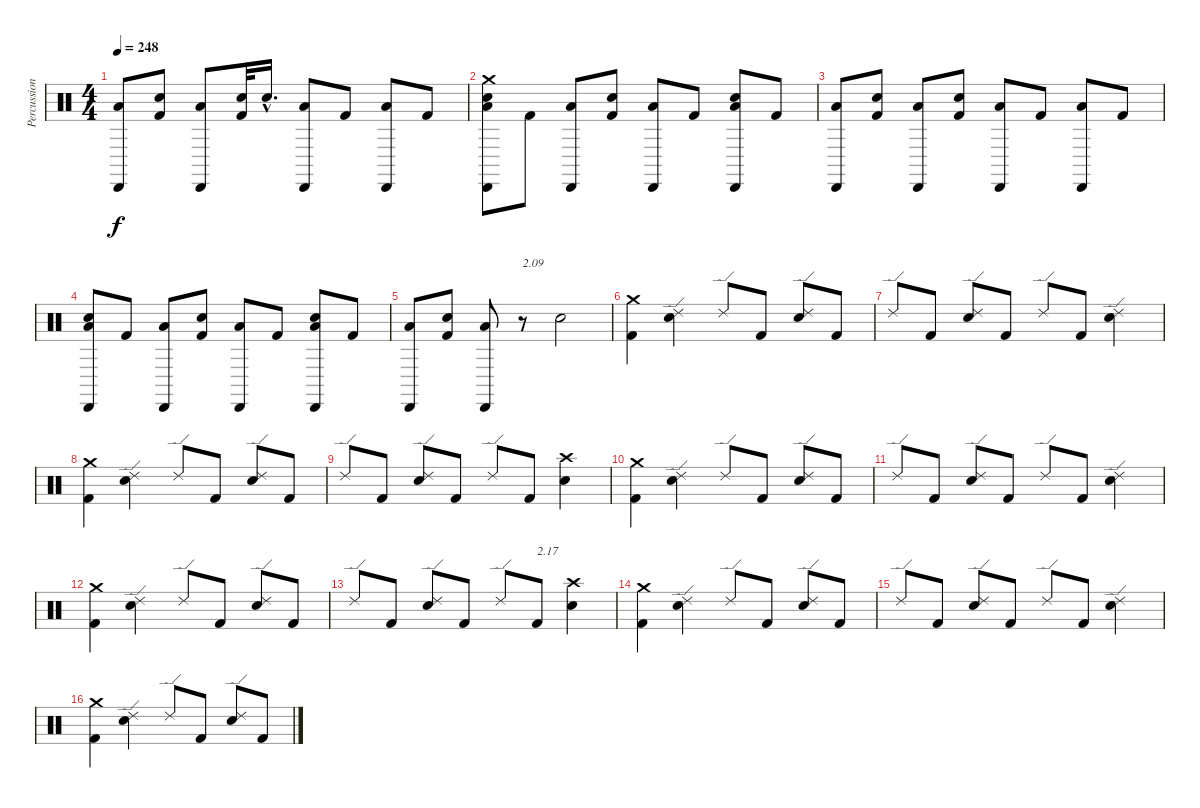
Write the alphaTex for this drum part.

\track ("Percussions" "Percussion") {instrument percussion}
\staff {score}
\articulation defaults
\ts (4 4)
\tempo 248
\clef neutral
\ks c
("Low Floor Tom (hit)" "Cabasa (hit)").8{dy f} ("Kick (hit) 2" "Electric Snare (hit)").8 ("Low Floor Tom (hit)" "Cabasa (hit)").8 ("Kick (hit) 2" "Electric Snare (hit)").32 "Electric Snare (hit)"{hac}.16{d} ("Low Floor Tom (hit)" "Cabasa (hit)").8 "Kick (hit) 2".8 ("Low Floor Tom (hit)" "Cabasa (hit)").8 "Kick (hit) 2".8 |
("Low Floor Tom (hit)" "Electric Snare (hit)" "Cabasa (hit)" "Crash medium (hit)").8 "Kick (hit) 2".8 ("Low Floor Tom (hit)" "Cabasa (hit)").8 ("Kick (hit) 2" "Electric Snare (hit)").8 ("Low Floor Tom (hit)" "Cabasa (hit)").8 "Kick (hit) 2".8 ("Low Floor Tom (hit)" "Electric Snare (hit)" "Cabasa (hit)").8 "Kick (hit) 2".8 |
("Low Floor Tom (hit)" "Cabasa (hit)").8 ("Kick (hit) 2" "Electric Snare (hit)").8 ("Low Floor Tom (hit)" "Cabasa (hit)").8 ("Kick (hit) 2" "Electric Snare (hit)").8 ("Low Floor Tom (hit)" "Cabasa (hit)").8 "Kick (hit) 2".8 ("Low Floor Tom (hit)" "Cabasa (hit)").8 "Kick (hit) 2".8 |
("Low Floor Tom (hit)" "Electric Snare (hit)" "Cabasa (hit)").8 "Kick (hit) 2".8 ("Low Floor Tom (hit)" "Cabasa (hit)").8 ("Kick (hit) 2" "Electric Snare (hit)").8 ("Low Floor Tom (hit)" "Cabasa (hit)").8 "Kick (hit) 2".8 ("Low Floor Tom (hit)" "Electric Snare (hit)" "Cabasa (hit)").8 "Kick (hit) 2".8 |
("Low Floor Tom (hit)" "Cabasa (hit)").8 ("Kick (hit) 2" "Electric Snare (hit)").8 ("Low Floor Tom (hit)" "Cabasa (hit)").8 r.8{txt "2.09"} "Electric Snare (hit)".2 |
("Kick (hit) 2" "Crash medium (hit)").4 ("Electric Snare (hit)" "Ride (edge) 2").4 "Ride (edge) 2".8 "Kick (hit) 2".8 ("Electric Snare (hit)" "Ride (edge) 2").8 "Kick (hit) 2".8 |
"Ride (edge) 2".8 "Kick (hit) 2".8 ("Electric Snare (hit)" "Ride (edge) 2").8 "Kick (hit) 2".8 "Ride (edge) 2".8 "Kick (hit) 2".8 ("Electric Snare (hit)" "Ride (edge) 2").4 |
("Kick (hit) 2" "Crash medium (hit)").4 ("Electric Snare (hit)" "Ride (edge) 2").4 "Ride (edge) 2".8 "Kick (hit) 2".8 ("Electric Snare (hit)" "Ride (edge) 2").8 "Kick (hit) 2".8 |
"Ride (edge) 2".8 "Kick (hit) 2".8 ("Electric Snare (hit)" "Ride (edge) 2").8 "Kick (hit) 2".8 "Ride (edge) 2".8 "Kick (hit) 2".8 ("Electric Snare (hit)" "Crash high (hit)").4 |
("Kick (hit) 2" "Crash medium (hit)").4 ("Electric Snare (hit)" "Ride (edge) 2").4 "Ride (edge) 2".8 "Kick (hit) 2".8 ("Electric Snare (hit)" "Ride (edge) 2").8 "Kick (hit) 2".8 |
"Ride (edge) 2".8 "Kick (hit) 2".8 ("Electric Snare (hit)" "Ride (edge) 2").8 "Kick (hit) 2".8 "Ride (edge) 2".8 "Kick (hit) 2".8 ("Electric Snare (hit)" "Ride (edge) 2").4 |
("Kick (hit) 2" "Crash medium (hit)").4 ("Electric Snare (hit)" "Ride (edge) 2").4 "Ride (edge) 2".8 "Kick (hit) 2".8 ("Electric Snare (hit)" "Ride (edge) 2").8 "Kick (hit) 2".8 |
"Ride (edge) 2".8 "Kick (hit) 2".8 ("Electric Snare (hit)" "Ride (edge) 2").8 "Kick (hit) 2".8 "Ride (edge) 2".8 "Kick (hit) 2".8{txt "2.17"} ("Electric Snare (hit)" "Crash high (hit)").4 |
("Kick (hit) 2" "Crash medium (hit)").4 ("Electric Snare (hit)" "Ride (edge) 2").4 "Ride (edge) 2".8 "Kick (hit) 2".8 ("Electric Snare (hit)" "Ride (edge) 2").8 "Kick (hit) 2".8 |
"Ride (edge) 2".8 "Kick (hit) 2".8 ("Electric Snare (hit)" "Ride (edge) 2").8 "Kick (hit) 2".8 "Ride (edge) 2".8 "Kick (hit) 2".8 ("Electric Snare (hit)" "Ride (edge) 2").4 |
("Kick (hit) 2" "Crash medium (hit)").4 ("Electric Snare (hit)" "Ride (edge) 2").4 "Ride (edge) 2".8 "Kick (hit) 2".8 ("Electric Snare (hit)" "Ride (edge) 2").8 "Kick (hit) 2".8
